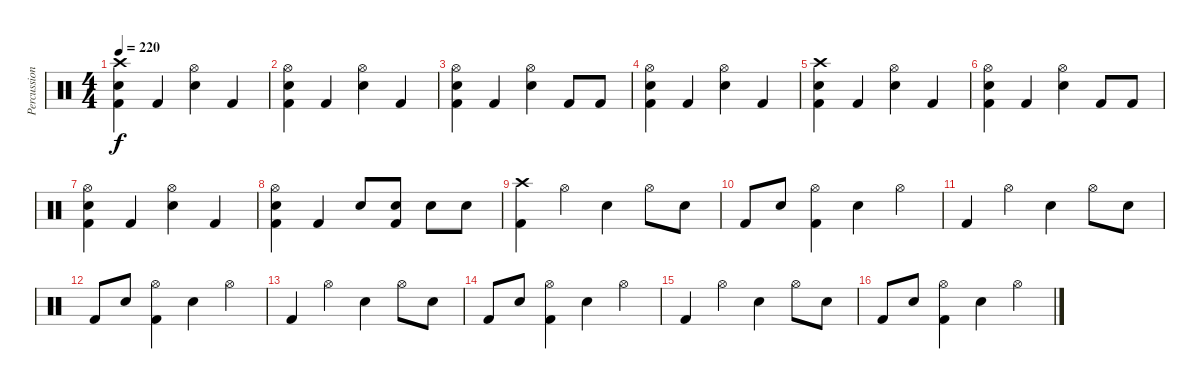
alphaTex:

\track ("Percussion" "Percussion") {instrument percussion}
\staff {score}
\articulation defaults
\ts (4 4)
\tempo 220
\clef neutral
\ks c
("Crash high (hit)" "Electric Snare (hit)" "Kick (hit) 2").4{dy f} "Kick (hit) 2".4 ("Hi-Hat (open)" "Electric Snare (hit)").4 "Kick (hit) 2".4 |
("Hi-Hat (open)" "Electric Snare (hit)" "Kick (hit) 2").4 "Kick (hit) 2".4 ("Hi-Hat (open)" "Electric Snare (hit)").4 "Kick (hit) 2".4 |
("Hi-Hat (open)" "Electric Snare (hit)" "Kick (hit) 2").4 "Kick (hit) 2".4 ("Hi-Hat (open)" "Electric Snare (hit)").4 "Kick (hit) 2".8 "Kick (hit) 2".8 |
("Hi-Hat (open)" "Electric Snare (hit)" "Kick (hit) 2").4 "Kick (hit) 2".4 ("Hi-Hat (open)" "Electric Snare (hit)").4 "Kick (hit) 2".4 |
("Crash high (hit)" "Electric Snare (hit)" "Kick (hit) 2").4 "Kick (hit) 2".4 ("Hi-Hat (open)" "Electric Snare (hit)").4 "Kick (hit) 2".4 |
("Hi-Hat (open)" "Electric Snare (hit)" "Kick (hit) 2").4 "Kick (hit) 2".4 ("Hi-Hat (open)" "Electric Snare (hit)").4 "Kick (hit) 2".8 "Kick (hit) 2".8 |
("Hi-Hat (open)" "Electric Snare (hit)" "Kick (hit) 2").4 "Kick (hit) 2".4 ("Hi-Hat (open)" "Electric Snare (hit)").4 "Kick (hit) 2".4 |
("Hi-Hat (open)" "Electric Snare (hit)" "Kick (hit) 2").4 "Kick (hit) 2".4 "Electric Snare (hit)".8 ("Electric Snare (hit)" "Kick (hit) 2").8 "Electric Snare (hit)".8 "Electric Snare (hit)".8 |
("Crash high (hit)" "Kick (hit) 2").4 "Hi-Hat (open)".4 "Electric Snare (hit)".4 "Hi-Hat (open)".8 "Electric Snare (hit)".8 |
"Kick (hit) 2".8 "Electric Snare (hit)".8 ("Hi-Hat (open)" "Kick (hit) 2").4 "Electric Snare (hit)".4 "Hi-Hat (open)".4 |
"Kick (hit) 2".4 "Hi-Hat (open)".4 "Electric Snare (hit)".4 "Hi-Hat (open)".8 "Electric Snare (hit)".8 |
"Kick (hit) 2".8 "Electric Snare (hit)".8 ("Hi-Hat (open)" "Kick (hit) 2").4 "Electric Snare (hit)".4 "Hi-Hat (open)".4 |
"Kick (hit) 2".4 "Hi-Hat (open)".4 "Electric Snare (hit)".4 "Hi-Hat (open)".8 "Electric Snare (hit)".8 |
"Kick (hit) 2".8 "Electric Snare (hit)".8 ("Hi-Hat (open)" "Kick (hit) 2").4 "Electric Snare (hit)".4 "Hi-Hat (open)".4 |
"Kick (hit) 2".4 "Hi-Hat (open)".4 "Electric Snare (hit)".4 "Hi-Hat (open)".8 "Electric Snare (hit)".8 |
"Kick (hit) 2".8 "Electric Snare (hit)".8 ("Hi-Hat (open)" "Kick (hit) 2").4 "Electric Snare (hit)".4 "Hi-Hat (open)".4
